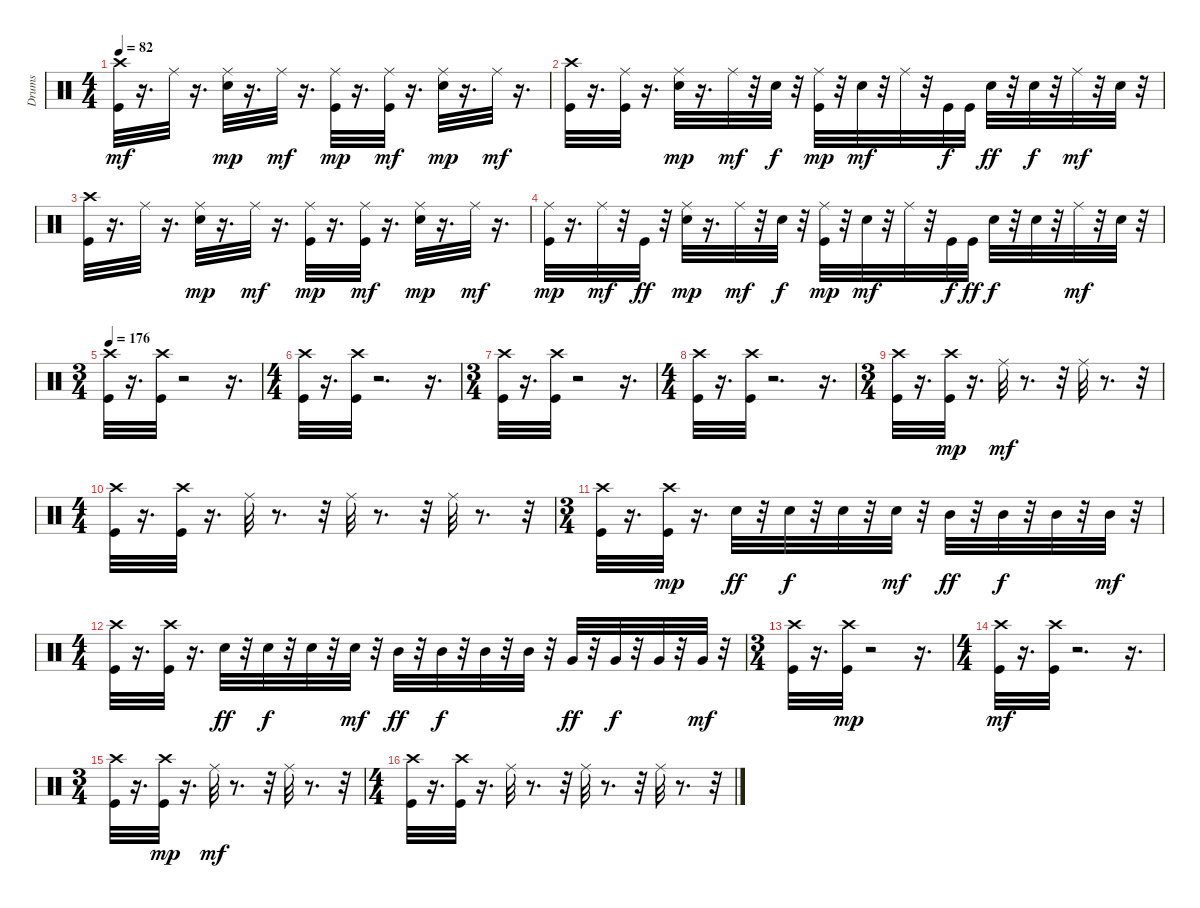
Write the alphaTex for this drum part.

\track ("Drums" "Drums") {instrument percussion}
\staff {score}
\articulation defaults
\ts (4 4)
\tempo 82
\clef neutral
\ks c
("Kick (hit)" "Crash high (hit)").32{dy mf} r.16{d} "Ride (middle)".32 r.16{d} ("Snare (hit) 2" "Ride (middle)").32{dy mp} r.16{d} "Ride (middle)".32{dy mf} r.16{d} ("Kick (hit)" "Ride (middle)").32{dy mp} r.16{d} ("Kick (hit)" "Ride (middle)").32{dy mf} r.16{d} ("Snare (hit) 2" "Ride (middle)").32{dy mp} r.16{d} "Ride (middle)".32{dy mf} r.16{d} |
("Kick (hit)" "Crash high (hit)").32 r.16{d} ("Kick (hit)" "Ride (middle)").32 r.16{d} ("Snare (hit) 2" "Ride (middle)").32{dy mp} r.16{d} "Ride (middle)".32{dy mf} r.32 "Snare (hit) 2".32{dy f} r.32 ("Kick (hit)" "Ride (middle)").32{dy mp} r.32 "Snare (hit) 2".32{dy mf} r.32 "Ride (middle)".32 r.32 "Kick (hit)".32{dy f} "Kick (hit)".32 "Snare (hit) 2".32{dy ff} r.32 "Snare (hit) 2".32{dy f} r.32 "Ride (middle)".32{dy mf} r.32 "Snare (hit) 2".32 r.32 |
("Kick (hit)" "Crash high (hit)").32 r.16{d} "Ride (middle)".32 r.16{d} ("Snare (hit) 2" "Ride (middle)").32{dy mp} r.16{d} "Ride (middle)".32{dy mf} r.16{d} ("Kick (hit)" "Ride (middle)").32{dy mp} r.16{d} ("Kick (hit)" "Ride (middle)").32{dy mf} r.16{d} ("Snare (hit) 2" "Ride (middle)").32{dy mp} r.16{d} "Ride (middle)".32{dy mf} r.16{d} |
("Kick (hit)" "Ride (middle)").32{dy mp} r.16{d} "Ride (middle)".32{dy mf} r.32 "Kick (hit)".32{dy ff} r.32 ("Snare (hit) 2" "Ride (middle)").32{dy mp} r.16{d} "Ride (middle)".32{dy mf} r.32 "Snare (hit) 2".32{dy f} r.32 ("Kick (hit)" "Ride (middle)").32{dy mp} r.32 "Snare (hit) 2".32{dy mf} r.32 "Ride (middle)".32 r.32 "Kick (hit)".32{dy f} "Kick (hit)".32{dy ff} "Snare (hit) 2".32{dy f} r.32 "Snare (hit) 2".32 r.32 "Ride (middle)".32{dy mf} r.32 "Snare (hit) 2".32 r.32 |
\ts (3 4)
\tempo 176
("Kick (hit)" "Crash high (hit)").32 r.16{d} ("Kick (hit)" "Crash high (hit)").32 r.2 r.16{d} |
\ts (4 4)
("Kick (hit)" "Crash high (hit)").32 r.16{d} ("Kick (hit)" "Crash high (hit)").32 r.2{d} r.16{d} |
\ts (3 4)
("Kick (hit)" "Crash high (hit)").32 r.16{d} ("Kick (hit)" "Crash high (hit)").32 r.2 r.16{d} |
\ts (4 4)
("Kick (hit)" "Crash high (hit)").32 r.16{d} ("Kick (hit)" "Crash high (hit)").32 r.2{d} r.16{d} |
\ts (3 4)
("Kick (hit)" "Crash high (hit)").32 r.16{d} ("Kick (hit)" "Crash high (hit)").32{dy mp} r.16{d} "Ride (middle)".32{dy mf} r.8{d} r.32 "Ride (middle)".32 r.8{d} r.32 |
\ts (4 4)
("Kick (hit)" "Crash high (hit)").32 r.16{d} ("Kick (hit)" "Crash high (hit)").32 r.16{d} "Ride (middle)".32 r.8{d} r.32 "Ride (middle)".32 r.8{d} r.32 "Ride (middle)".32 r.8{d} r.32 |
\ts (3 4)
("Kick (hit)" "Crash high (hit)").32 r.16{d} ("Kick (hit)" "Crash high (hit)").32{dy mp} r.16{d} "Snare (hit) 2".32{dy ff} r.32 "Snare (hit) 2".32{dy f} r.32 "Snare (hit) 2".32 r.32 "Snare (hit) 2".32{dy mf} r.32 "Mid Tom (hit)".32{dy ff} r.32 "Mid Tom (hit)".32{dy f} r.32 "Mid Tom (hit)".32 r.32 "Mid Tom (hit)".32{dy mf} r.32 |
\ts (4 4)
("Kick (hit)" "Crash high (hit)").32 r.16{d} ("Kick (hit)" "Crash high (hit)").32 r.16{d} "Snare (hit) 2".32{dy ff} r.32 "Snare (hit) 2".32{dy f} r.32 "Snare (hit) 2".32 r.32 "Snare (hit) 2".32{dy mf} r.32 "Mid Tom (hit)".32{dy ff} r.32 "Mid Tom (hit)".32{dy f} r.32 "Mid Tom (hit)".32 r.32 "Mid Tom (hit)".32 r.32 "Very Low Tom (hit)".32{dy ff} r.32 "Very Low Tom (hit)".32{dy f} r.32 "Very Low Tom (hit)".32 r.32 "Very Low Tom (hit)".32{dy mf} r.32 |
\ts (3 4)
("Kick (hit)" "Crash high (hit)").32 r.16{d} ("Kick (hit)" "Crash high (hit)").32{dy mp} r.2 r.16{d} |
\ts (4 4)
("Kick (hit)" "Crash high (hit)").32{dy mf} r.16{d} ("Kick (hit)" "Crash high (hit)").32 r.2{d} r.16{d} |
\ts (3 4)
("Kick (hit)" "Crash high (hit)").32 r.16{d} ("Kick (hit)" "Crash high (hit)").32{dy mp} r.16{d} "Ride (middle)".32{dy mf} r.8{d} r.32 "Ride (middle)".32 r.8{d} r.32 |
\ts (4 4)
("Kick (hit)" "Crash high (hit)").32 r.16{d} ("Kick (hit)" "Crash high (hit)").32 r.16{d} "Ride (middle)".32 r.8{d} r.32 "Ride (middle)".32 r.8{d} r.32 "Ride (middle)".32 r.8{d} r.32
